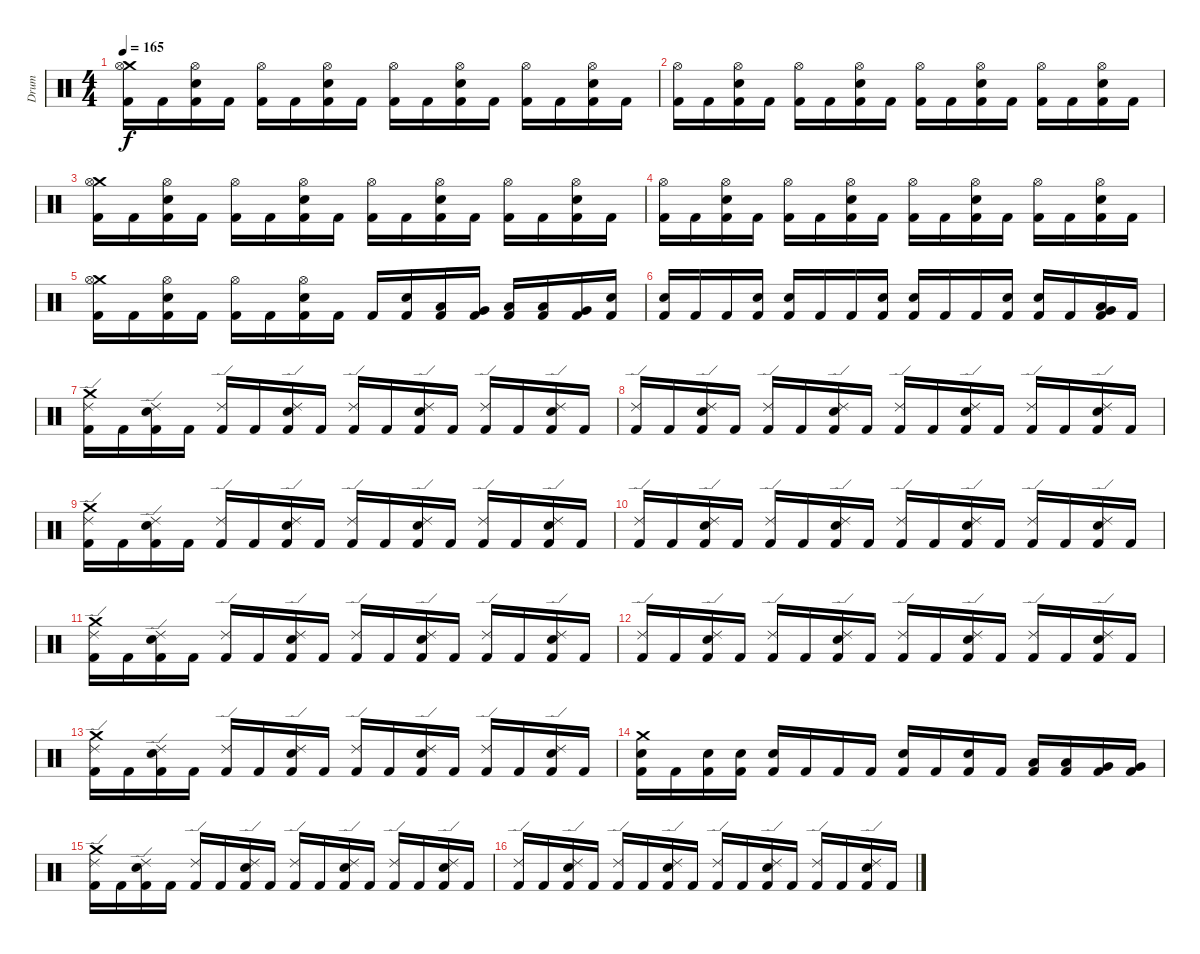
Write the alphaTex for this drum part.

\track ("Drum" "Drum") {instrument percussion}
\staff {score}
\articulation defaults
\ts (4 4)
\tempo 165
\clef neutral
\ks c
("Crash medium (hit)" "Hi-Hat (open)" "Kick (hit) 2").16{dy f} "Kick (hit) 2".16 ("Electric Snare (hit)" "Hi-Hat (open)" "Kick (hit) 2").16 "Kick (hit) 2".16 ("Hi-Hat (open)" "Kick (hit) 2").16 "Kick (hit) 2".16 ("Electric Snare (hit)" "Hi-Hat (open)" "Kick (hit) 2").16 "Kick (hit) 2".16 ("Hi-Hat (open)" "Kick (hit) 2").16 "Kick (hit) 2".16 ("Electric Snare (hit)" "Hi-Hat (open)" "Kick (hit) 2").16 "Kick (hit) 2".16 ("Hi-Hat (open)" "Kick (hit) 2").16 "Kick (hit) 2".16 ("Electric Snare (hit)" "Hi-Hat (open)" "Kick (hit) 2").16 "Kick (hit) 2".16 |
("Hi-Hat (open)" "Kick (hit) 2").16 "Kick (hit) 2".16 ("Electric Snare (hit)" "Hi-Hat (open)" "Kick (hit) 2").16 "Kick (hit) 2".16 ("Hi-Hat (open)" "Kick (hit) 2").16 "Kick (hit) 2".16 ("Electric Snare (hit)" "Hi-Hat (open)" "Kick (hit) 2").16 "Kick (hit) 2".16 ("Hi-Hat (open)" "Kick (hit) 2").16 "Kick (hit) 2".16 ("Hi-Hat (open)" "Electric Snare (hit)" "Kick (hit) 2").16 "Kick (hit) 2".16 ("Hi-Hat (open)" "Kick (hit) 2").16 "Kick (hit) 2".16 ("Electric Snare (hit)" "Hi-Hat (open)" "Kick (hit) 2").16 "Kick (hit) 2".16 |
("Crash medium (hit)" "Hi-Hat (open)" "Kick (hit) 2").16 "Kick (hit) 2".16 ("Electric Snare (hit)" "Hi-Hat (open)" "Kick (hit) 2").16 "Kick (hit) 2".16 ("Hi-Hat (open)" "Kick (hit) 2").16 "Kick (hit) 2".16 ("Electric Snare (hit)" "Hi-Hat (open)" "Kick (hit) 2").16 "Kick (hit) 2".16 ("Hi-Hat (open)" "Kick (hit) 2").16 "Kick (hit) 2".16 ("Electric Snare (hit)" "Hi-Hat (open)" "Kick (hit) 2").16 "Kick (hit) 2".16 ("Hi-Hat (open)" "Kick (hit) 2").16 "Kick (hit) 2".16 ("Electric Snare (hit)" "Hi-Hat (open)" "Kick (hit) 2").16 "Kick (hit) 2".16 |
("Hi-Hat (open)" "Kick (hit) 2").16 "Kick (hit) 2".16 ("Electric Snare (hit)" "Hi-Hat (open)" "Kick (hit) 2").16 "Kick (hit) 2".16 ("Hi-Hat (open)" "Kick (hit) 2").16 "Kick (hit) 2".16 ("Electric Snare (hit)" "Hi-Hat (open)" "Kick (hit) 2").16 "Kick (hit) 2".16 ("Hi-Hat (open)" "Kick (hit) 2").16 "Kick (hit) 2".16 ("Electric Snare (hit)" "Hi-Hat (open)" "Kick (hit) 2").16 "Kick (hit) 2".16 ("Hi-Hat (open)" "Kick (hit) 2").16 "Kick (hit) 2".16 ("Electric Snare (hit)" "Hi-Hat (open)" "Kick (hit) 2").16 "Kick (hit) 2".16 |
("Crash medium (hit)" "Hi-Hat (open)" "Kick (hit) 2").16 "Kick (hit) 2".16 ("Electric Snare (hit)" "Hi-Hat (open)" "Kick (hit) 2").16 "Kick (hit) 2".16 ("Hi-Hat (open)" "Kick (hit) 2").16 "Kick (hit) 2".16 ("Electric Snare (hit)" "Hi-Hat (open)" "Kick (hit) 2").16 "Kick (hit) 2".16 "Kick (hit) 2".16 ("Electric Snare (hit)" "Kick (hit) 2").16 ("Low Tom (hit)" "Kick (hit) 2").16 ("Very Low Tom (hit)" "Kick (hit) 2").16 ("Low Floor Tom (hit)" "Kick (hit) 2").16 ("Low Floor Tom (hit)" "Kick (hit) 2").16 ("Very Low Tom (hit)" "Kick (hit) 2").16 ("Electric Snare (hit)" "Kick (hit) 2").16 |
("Electric Snare (hit)" "Kick (hit) 2").16 "Kick (hit) 2".16 "Kick (hit) 2".16 ("Electric Snare (hit)" "Kick (hit) 2").16 ("Electric Snare (hit)" "Kick (hit) 2").16 "Kick (hit) 2".16 "Kick (hit) 2".16 ("Electric Snare (hit)" "Kick (hit) 2").16 ("Electric Snare (hit)" "Kick (hit) 2").16 "Kick (hit) 2".16 "Kick (hit) 2".16 ("Electric Snare (hit)" "Kick (hit) 2").16 ("Electric Snare (hit)" "Kick (hit) 2").16 "Kick (hit) 2".16 ("Low Floor Tom (hit)" "Very Low Tom (hit)" "Kick (hit) 2").16 "Kick (hit) 2".16 |
("Crash medium (hit)" "Ride (edge) 2" "Kick (hit) 2").16 "Kick (hit) 2".16 ("Electric Snare (hit)" "Ride (edge) 2" "Kick (hit) 2").16 "Kick (hit) 2".16 ("Ride (edge) 2" "Kick (hit) 2").16 "Kick (hit) 2".16 ("Electric Snare (hit)" "Ride (edge) 2" "Kick (hit) 2").16 "Kick (hit) 2".16 ("Ride (edge) 2" "Kick (hit) 2").16 "Kick (hit) 2".16 ("Electric Snare (hit)" "Ride (edge) 2" "Kick (hit) 2").16 "Kick (hit) 2".16 ("Ride (edge) 2" "Kick (hit) 2").16 "Kick (hit) 2".16 ("Electric Snare (hit)" "Ride (edge) 2" "Kick (hit) 2").16 "Kick (hit) 2".16 |
("Ride (edge) 2" "Kick (hit) 2").16 "Kick (hit) 2".16 ("Electric Snare (hit)" "Ride (edge) 2" "Kick (hit) 2").16 "Kick (hit) 2".16 ("Ride (edge) 2" "Kick (hit) 2").16 "Kick (hit) 2".16 ("Electric Snare (hit)" "Ride (edge) 2" "Kick (hit) 2").16 "Kick (hit) 2".16 ("Ride (edge) 2" "Kick (hit) 2").16 "Kick (hit) 2".16 ("Electric Snare (hit)" "Ride (edge) 2" "Kick (hit) 2").16 "Kick (hit) 2".16 ("Ride (edge) 2" "Kick (hit) 2").16 "Kick (hit) 2".16 ("Electric Snare (hit)" "Ride (edge) 2" "Kick (hit) 2").16 "Kick (hit) 2".16 |
("Crash medium (hit)" "Ride (edge) 2" "Kick (hit) 2").16 "Kick (hit) 2".16 ("Electric Snare (hit)" "Ride (edge) 2" "Kick (hit) 2").16 "Kick (hit) 2".16 ("Ride (edge) 2" "Kick (hit) 2").16 "Kick (hit) 2".16 ("Electric Snare (hit)" "Ride (edge) 2" "Kick (hit) 2").16 "Kick (hit) 2".16 ("Ride (edge) 2" "Kick (hit) 2").16 "Kick (hit) 2".16 ("Electric Snare (hit)" "Ride (edge) 2" "Kick (hit) 2").16 "Kick (hit) 2".16 ("Ride (edge) 2" "Kick (hit) 2").16 "Kick (hit) 2".16 ("Electric Snare (hit)" "Ride (edge) 2" "Kick (hit) 2").16 "Kick (hit) 2".16 |
("Ride (edge) 2" "Kick (hit) 2").16 "Kick (hit) 2".16 ("Electric Snare (hit)" "Ride (edge) 2" "Kick (hit) 2").16 "Kick (hit) 2".16 ("Ride (edge) 2" "Kick (hit) 2").16 "Kick (hit) 2".16 ("Electric Snare (hit)" "Ride (edge) 2" "Kick (hit) 2").16 "Kick (hit) 2".16 ("Ride (edge) 2" "Kick (hit) 2").16 "Kick (hit) 2".16 ("Electric Snare (hit)" "Ride (edge) 2" "Kick (hit) 2").16 "Kick (hit) 2".16 ("Ride (edge) 2" "Kick (hit) 2").16 "Kick (hit) 2".16 ("Electric Snare (hit)" "Ride (edge) 2" "Kick (hit) 2").16 "Kick (hit) 2".16 |
("Crash medium (hit)" "Ride (edge) 2" "Kick (hit) 2").16 "Kick (hit) 2".16 ("Electric Snare (hit)" "Ride (edge) 2" "Kick (hit) 2").16 "Kick (hit) 2".16 ("Ride (edge) 2" "Kick (hit) 2").16 "Kick (hit) 2".16 ("Electric Snare (hit)" "Ride (edge) 2" "Kick (hit) 2").16 "Kick (hit) 2".16 ("Ride (edge) 2" "Kick (hit) 2").16 "Kick (hit) 2".16 ("Electric Snare (hit)" "Ride (edge) 2" "Kick (hit) 2").16 "Kick (hit) 2".16 ("Ride (edge) 2" "Kick (hit) 2").16 "Kick (hit) 2".16 ("Electric Snare (hit)" "Ride (edge) 2" "Kick (hit) 2").16 "Kick (hit) 2".16 |
("Ride (edge) 2" "Kick (hit) 2").16 "Kick (hit) 2".16 ("Electric Snare (hit)" "Ride (edge) 2" "Kick (hit) 2").16 "Kick (hit) 2".16 ("Ride (edge) 2" "Kick (hit) 2").16 "Kick (hit) 2".16 ("Electric Snare (hit)" "Ride (edge) 2" "Kick (hit) 2").16 "Kick (hit) 2".16 ("Ride (edge) 2" "Kick (hit) 2").16 "Kick (hit) 2".16 ("Electric Snare (hit)" "Ride (edge) 2" "Kick (hit) 2").16 "Kick (hit) 2".16 ("Ride (edge) 2" "Kick (hit) 2").16 "Kick (hit) 2".16 ("Electric Snare (hit)" "Ride (edge) 2" "Kick (hit) 2").16 "Kick (hit) 2".16 |
("Crash medium (hit)" "Ride (edge) 2" "Kick (hit) 2").16 "Kick (hit) 2".16 ("Electric Snare (hit)" "Ride (edge) 2" "Kick (hit) 2").16 "Kick (hit) 2".16 ("Ride (edge) 2" "Kick (hit) 2").16 "Kick (hit) 2".16 ("Electric Snare (hit)" "Ride (edge) 2" "Kick (hit) 2").16 "Kick (hit) 2".16 ("Ride (edge) 2" "Kick (hit) 2").16 "Kick (hit) 2".16 ("Electric Snare (hit)" "Ride (edge) 2" "Kick (hit) 2").16 "Kick (hit) 2".16 ("Ride (edge) 2" "Kick (hit) 2").16 "Kick (hit) 2".16 ("Electric Snare (hit)" "Ride (edge) 2" "Kick (hit) 2").16 "Kick (hit) 2".16 |
("Crash medium (hit)" "Electric Snare (hit)" "Kick (hit) 2").16 "Kick (hit) 2".16 ("Electric Snare (hit)" "Kick (hit) 2").16 ("Electric Snare (hit)" "Kick (hit) 2").16 ("Electric Snare (hit)" "Kick (hit) 2").16 "Kick (hit) 2".16 "Kick (hit) 2".16 "Kick (hit) 2".16 ("Electric Snare (hit)" "Kick (hit) 2").16 "Kick (hit) 2".16 ("Electric Snare (hit)" "Kick (hit) 2").16 "Kick (hit) 2".16 ("Low Tom (hit)" "Kick (hit) 2").16 ("Low Tom (hit)" "Kick (hit) 2").16 ("Very Low Tom (hit)" "Kick (hit) 2").16 ("Very Low Tom (hit)" "Kick (hit) 2").16 |
("Crash medium (hit)" "Ride (edge) 2" "Kick (hit) 2").16 "Kick (hit) 2".16 ("Electric Snare (hit)" "Ride (edge) 2" "Kick (hit) 2").16 "Kick (hit) 2".16 ("Ride (edge) 2" "Kick (hit) 2").16 "Kick (hit) 2".16 ("Electric Snare (hit)" "Ride (edge) 2" "Kick (hit) 2").16 "Kick (hit) 2".16 ("Ride (edge) 2" "Kick (hit) 2").16 "Kick (hit) 2".16 ("Electric Snare (hit)" "Ride (edge) 2" "Kick (hit) 2").16 "Kick (hit) 2".16 ("Ride (edge) 2" "Kick (hit) 2").16 "Kick (hit) 2".16 ("Electric Snare (hit)" "Ride (edge) 2" "Kick (hit) 2").16 "Kick (hit) 2".16 |
("Ride (edge) 2" "Kick (hit) 2").16 "Kick (hit) 2".16 ("Electric Snare (hit)" "Ride (edge) 2" "Kick (hit) 2").16 "Kick (hit) 2".16 ("Ride (edge) 2" "Kick (hit) 2").16 "Kick (hit) 2".16 ("Electric Snare (hit)" "Ride (edge) 2" "Kick (hit) 2").16 "Kick (hit) 2".16 ("Ride (edge) 2" "Kick (hit) 2").16 "Kick (hit) 2".16 ("Electric Snare (hit)" "Ride (edge) 2" "Kick (hit) 2").16 "Kick (hit) 2".16 ("Ride (edge) 2" "Kick (hit) 2").16 "Kick (hit) 2".16 ("Electric Snare (hit)" "Ride (edge) 2" "Kick (hit) 2").16 "Kick (hit) 2".16
